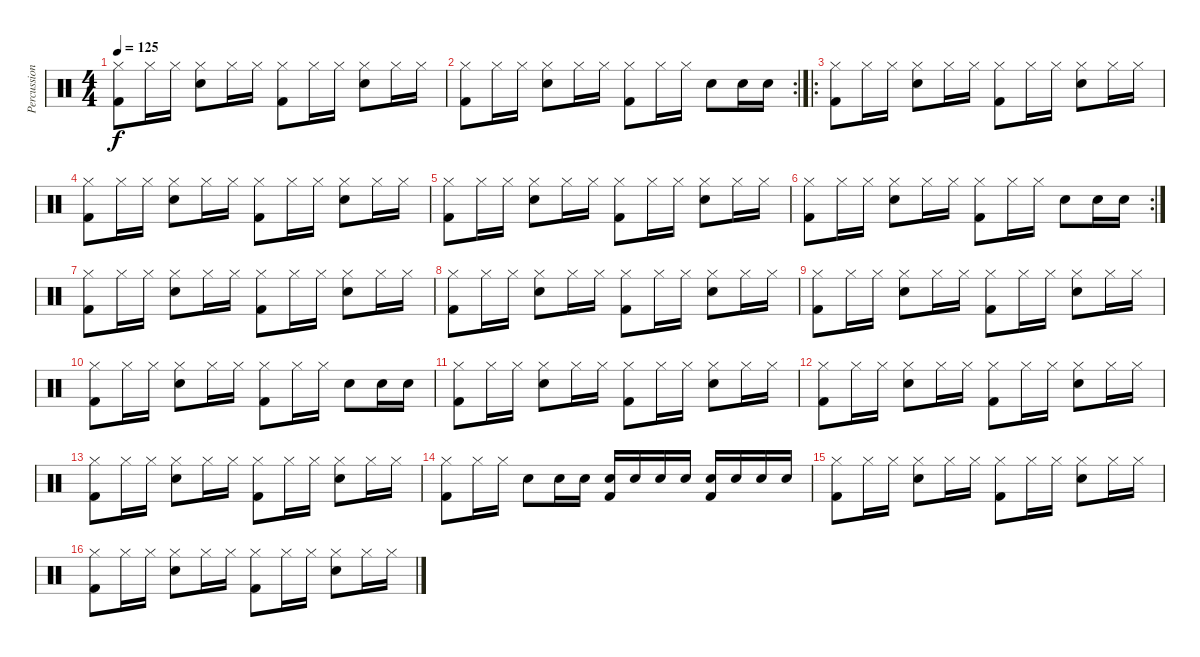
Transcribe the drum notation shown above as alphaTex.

\track ("Percussion" "Percussion") {instrument percussion}
\staff {score}
\articulation defaults
\ts (4 4)
\tempo 125
\clef neutral
\ks c
("Hi-Hat (closed)" "Kick (hit) 2").8{dy f} "Hi-Hat (closed)".16 "Hi-Hat (closed)".16 ("Hi-Hat (closed)" "Snare (hit) 2").8 "Hi-Hat (closed)".16 "Hi-Hat (closed)".16 ("Hi-Hat (closed)" "Kick (hit) 2").8 "Hi-Hat (closed)".16 "Hi-Hat (closed)".16 ("Hi-Hat (closed)" "Snare (hit) 2").8 "Hi-Hat (closed)".16 "Hi-Hat (closed)".16 |
\rc 2
("Hi-Hat (closed)" "Kick (hit) 2").8 "Hi-Hat (closed)".16 "Hi-Hat (closed)".16 ("Hi-Hat (closed)" "Snare (hit) 2").8 "Hi-Hat (closed)".16 "Hi-Hat (closed)".16 ("Hi-Hat (closed)" "Kick (hit) 2").8 "Hi-Hat (closed)".16 "Hi-Hat (closed)".16 "Snare (hit) 2".8 "Snare (hit) 2".16 "Snare (hit) 2".16 |
\ro
("Hi-Hat (closed)" "Kick (hit) 2").8 "Hi-Hat (closed)".16 "Hi-Hat (closed)".16 ("Hi-Hat (closed)" "Snare (hit) 2").8 "Hi-Hat (closed)".16 "Hi-Hat (closed)".16 ("Hi-Hat (closed)" "Kick (hit) 2").8 "Hi-Hat (closed)".16 "Hi-Hat (closed)".16 ("Hi-Hat (closed)" "Snare (hit) 2").8 "Hi-Hat (closed)".16 "Hi-Hat (closed)".16 |
("Hi-Hat (closed)" "Kick (hit) 2").8 "Hi-Hat (closed)".16 "Hi-Hat (closed)".16 ("Hi-Hat (closed)" "Snare (hit) 2").8 "Hi-Hat (closed)".16 "Hi-Hat (closed)".16 ("Hi-Hat (closed)" "Kick (hit) 2").8 "Hi-Hat (closed)".16 "Hi-Hat (closed)".16 ("Hi-Hat (closed)" "Snare (hit) 2").8 "Hi-Hat (closed)".16 "Hi-Hat (closed)".16 |
("Hi-Hat (closed)" "Kick (hit) 2").8 "Hi-Hat (closed)".16 "Hi-Hat (closed)".16 ("Hi-Hat (closed)" "Snare (hit) 2").8 "Hi-Hat (closed)".16 "Hi-Hat (closed)".16 ("Hi-Hat (closed)" "Kick (hit) 2").8 "Hi-Hat (closed)".16 "Hi-Hat (closed)".16 ("Hi-Hat (closed)" "Snare (hit) 2").8 "Hi-Hat (closed)".16 "Hi-Hat (closed)".16 |
\rc 2
("Hi-Hat (closed)" "Kick (hit) 2").8 "Hi-Hat (closed)".16 "Hi-Hat (closed)".16 ("Hi-Hat (closed)" "Snare (hit) 2").8 "Hi-Hat (closed)".16 "Hi-Hat (closed)".16 ("Hi-Hat (closed)" "Kick (hit) 2").8 "Hi-Hat (closed)".16 "Hi-Hat (closed)".16 "Snare (hit) 2".8 "Snare (hit) 2".16 "Snare (hit) 2".16 |
("Hi-Hat (closed)" "Kick (hit) 2").8 "Hi-Hat (closed)".16 "Hi-Hat (closed)".16 ("Hi-Hat (closed)" "Snare (hit) 2").8 "Hi-Hat (closed)".16 "Hi-Hat (closed)".16 ("Hi-Hat (closed)" "Kick (hit) 2").8 "Hi-Hat (closed)".16 "Hi-Hat (closed)".16 ("Hi-Hat (closed)" "Snare (hit) 2").8 "Hi-Hat (closed)".16 "Hi-Hat (closed)".16 |
("Hi-Hat (closed)" "Kick (hit) 2").8 "Hi-Hat (closed)".16 "Hi-Hat (closed)".16 ("Hi-Hat (closed)" "Snare (hit) 2").8 "Hi-Hat (closed)".16 "Hi-Hat (closed)".16 ("Hi-Hat (closed)" "Kick (hit) 2").8 "Hi-Hat (closed)".16 "Hi-Hat (closed)".16 ("Hi-Hat (closed)" "Snare (hit) 2").8 "Hi-Hat (closed)".16 "Hi-Hat (closed)".16 |
("Hi-Hat (closed)" "Kick (hit) 2").8 "Hi-Hat (closed)".16 "Hi-Hat (closed)".16 ("Hi-Hat (closed)" "Snare (hit) 2").8 "Hi-Hat (closed)".16 "Hi-Hat (closed)".16 ("Hi-Hat (closed)" "Kick (hit) 2").8 "Hi-Hat (closed)".16 "Hi-Hat (closed)".16 ("Hi-Hat (closed)" "Snare (hit) 2").8 "Hi-Hat (closed)".16 "Hi-Hat (closed)".16 |
("Hi-Hat (closed)" "Kick (hit) 2").8 "Hi-Hat (closed)".16 "Hi-Hat (closed)".16 ("Hi-Hat (closed)" "Snare (hit) 2").8 "Hi-Hat (closed)".16 "Hi-Hat (closed)".16 ("Hi-Hat (closed)" "Kick (hit) 2").8 "Hi-Hat (closed)".16 "Hi-Hat (closed)".16 "Snare (hit) 2".8 "Snare (hit) 2".16 "Snare (hit) 2".16 |
("Hi-Hat (closed)" "Kick (hit) 2").8 "Hi-Hat (closed)".16 "Hi-Hat (closed)".16 ("Hi-Hat (closed)" "Snare (hit) 2").8 "Hi-Hat (closed)".16 "Hi-Hat (closed)".16 ("Hi-Hat (closed)" "Kick (hit) 2").8 "Hi-Hat (closed)".16 "Hi-Hat (closed)".16 ("Hi-Hat (closed)" "Snare (hit) 2").8 "Hi-Hat (closed)".16 "Hi-Hat (closed)".16 |
("Hi-Hat (closed)" "Kick (hit) 2").8 "Hi-Hat (closed)".16 "Hi-Hat (closed)".16 ("Hi-Hat (closed)" "Snare (hit) 2").8 "Hi-Hat (closed)".16 "Hi-Hat (closed)".16 ("Hi-Hat (closed)" "Kick (hit) 2").8 "Hi-Hat (closed)".16 "Hi-Hat (closed)".16 ("Hi-Hat (closed)" "Snare (hit) 2").8 "Hi-Hat (closed)".16 "Hi-Hat (closed)".16 |
("Hi-Hat (closed)" "Kick (hit) 2").8 "Hi-Hat (closed)".16 "Hi-Hat (closed)".16 ("Hi-Hat (closed)" "Snare (hit) 2").8 "Hi-Hat (closed)".16 "Hi-Hat (closed)".16 ("Hi-Hat (closed)" "Kick (hit) 2").8 "Hi-Hat (closed)".16 "Hi-Hat (closed)".16 ("Hi-Hat (closed)" "Snare (hit) 2").8 "Hi-Hat (closed)".16 "Hi-Hat (closed)".16 |
("Hi-Hat (closed)" "Kick (hit) 2").8 "Hi-Hat (closed)".16 "Hi-Hat (closed)".16 "Snare (hit) 2".8 "Snare (hit) 2".16 "Snare (hit) 2".16 ("Snare (hit) 2" "Kick (hit) 2").16 "Snare (hit) 2".16 "Snare (hit) 2".16 "Snare (hit) 2".16 ("Snare (hit) 2" "Kick (hit) 2").16 "Snare (hit) 2".16 "Snare (hit) 2".16 "Snare (hit) 2".16 |
("Hi-Hat (closed)" "Kick (hit) 2").8 "Hi-Hat (closed)".16 "Hi-Hat (closed)".16 ("Hi-Hat (closed)" "Snare (hit) 2").8 "Hi-Hat (closed)".16 "Hi-Hat (closed)".16 ("Hi-Hat (closed)" "Kick (hit) 2").8 "Hi-Hat (closed)".16 "Hi-Hat (closed)".16 ("Hi-Hat (closed)" "Snare (hit) 2").8 "Hi-Hat (closed)".16 "Hi-Hat (closed)".16 |
("Hi-Hat (closed)" "Kick (hit) 2").8 "Hi-Hat (closed)".16 "Hi-Hat (closed)".16 ("Hi-Hat (closed)" "Snare (hit) 2").8 "Hi-Hat (closed)".16 "Hi-Hat (closed)".16 ("Hi-Hat (closed)" "Kick (hit) 2").8 "Hi-Hat (closed)".16 "Hi-Hat (closed)".16 ("Hi-Hat (closed)" "Snare (hit) 2").8 "Hi-Hat (closed)".16 "Hi-Hat (closed)".16
